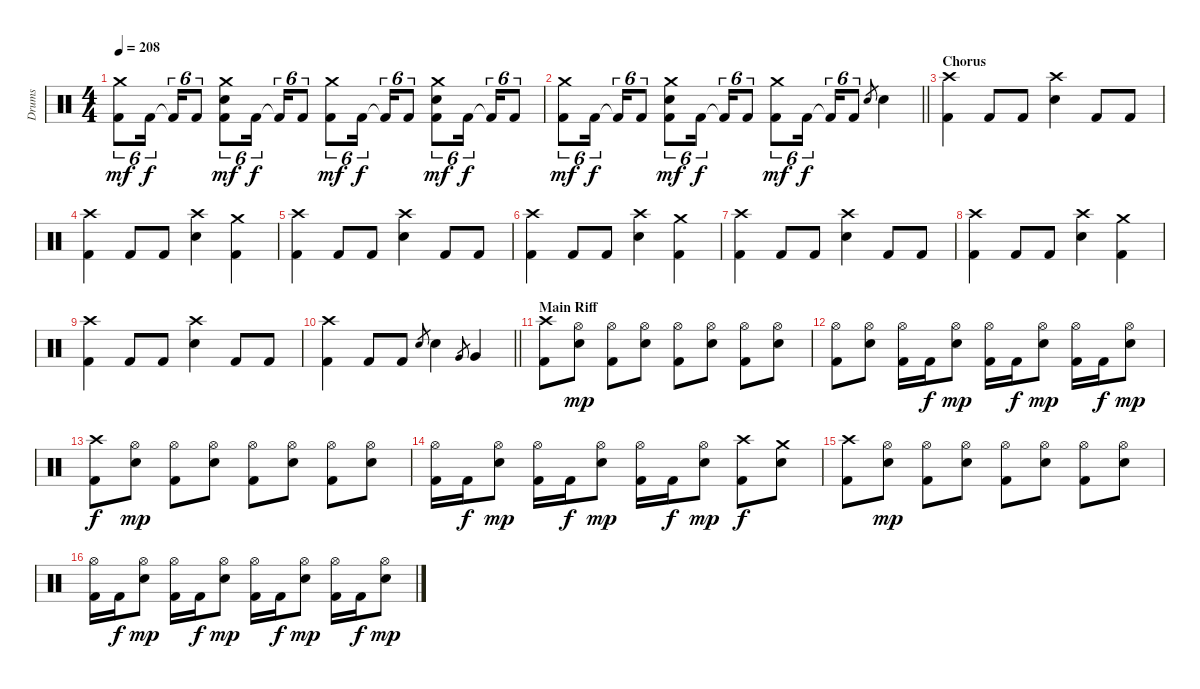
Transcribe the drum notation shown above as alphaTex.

\track ("Drums" "Drums") {instrument percussion}
\staff {score}
\articulation defaults
\ts (4 4)
\tempo 208
\clef neutral
\ks c
("Crash medium (hit)" "Kick (hit) 2").8{tu (6 4) dy mf} "Kick (hit) 2".16{tu (6 4) dy f} "Kick (hit) 2"{t}.16{tu (6 4)} "Kick (hit) 2".8{tu (6 4)} ("Crash medium (hit)" "Electric Snare (hit)" "Kick (hit) 2").8{tu (6 4) dy mf} "Kick (hit) 2".16{tu (6 4) dy f} "Kick (hit) 2"{t}.16{tu (6 4)} "Kick (hit) 2".8{tu (6 4)} ("Crash medium (hit)" "Kick (hit) 2").8{tu (6 4) dy mf} "Kick (hit) 2".16{tu (6 4) dy f} "Kick (hit) 2"{t}.16{tu (6 4)} "Kick (hit) 2".8{tu (6 4)} ("Crash medium (hit)" "Electric Snare (hit)" "Kick (hit) 2").8{tu (6 4) dy mf} "Kick (hit) 2".16{tu (6 4) dy f} "Kick (hit) 2"{t}.16{tu (6 4)} "Kick (hit) 2".8{tu (6 4)} |
\barLineRight lightlight
("Crash medium (hit)" "Kick (hit) 2").8{tu (6 4) dy mf} "Kick (hit) 2".16{tu (6 4) dy f} "Kick (hit) 2"{t}.16{tu (6 4)} "Kick (hit) 2".8{tu (6 4)} ("Crash medium (hit)" "Electric Snare (hit)" "Kick (hit) 2").8{tu (6 4) dy mf} "Kick (hit) 2".16{tu (6 4) dy f} "Kick (hit) 2"{t}.16{tu (6 4)} "Kick (hit) 2".8{tu (6 4)} ("Crash medium (hit)" "Kick (hit) 2").8{tu (6 4) dy mf} "Kick (hit) 2".16{tu (6 4) dy f} "Kick (hit) 2"{t}.16{tu (6 4)} "Kick (hit) 2".8{tu (6 4)} "Electric Snare (hit)".8{gr} "Electric Snare (hit)".4 |
\section ("" "Chorus")
("Crash high (hit)" "Kick (hit) 2").4 "Kick (hit) 2".8 "Kick (hit) 2".8 ("Crash high (hit)" "Electric Snare (hit)").4 "Kick (hit) 2".8 "Kick (hit) 2".8 |
("Crash high (hit)" "Kick (hit) 2").4 "Kick (hit) 2".8 "Kick (hit) 2".8 ("Crash high (hit)" "Electric Snare (hit)").4 ("Crash medium (hit)" "Kick (hit) 2").4 |
("Crash high (hit)" "Kick (hit) 2").4 "Kick (hit) 2".8 "Kick (hit) 2".8 ("Crash high (hit)" "Electric Snare (hit)").4 "Kick (hit) 2".8 "Kick (hit) 2".8 |
("Crash high (hit)" "Kick (hit) 2").4 "Kick (hit) 2".8 "Kick (hit) 2".8 ("Crash high (hit)" "Electric Snare (hit)").4 ("Crash medium (hit)" "Kick (hit) 2").4 |
("Crash high (hit)" "Kick (hit) 2").4 "Kick (hit) 2".8 "Kick (hit) 2".8 ("Crash high (hit)" "Electric Snare (hit)").4 "Kick (hit) 2".8 "Kick (hit) 2".8 |
("Crash high (hit)" "Kick (hit) 2").4 "Kick (hit) 2".8 "Kick (hit) 2".8 ("Crash high (hit)" "Electric Snare (hit)").4 ("Crash medium (hit)" "Kick (hit) 2").4 |
("Crash high (hit)" "Kick (hit) 2").4 "Kick (hit) 2".8 "Kick (hit) 2".8 ("Crash high (hit)" "Electric Snare (hit)").4 "Kick (hit) 2".8 "Kick (hit) 2".8 |
\barLineRight lightlight
("Crash high (hit)" "Kick (hit) 2").4 "Kick (hit) 2".8 "Kick (hit) 2".8 "Electric Snare (hit)".8{gr} "Electric Snare (hit)".4 "Very Low Tom (hit)".8{gr} "Very Low Tom (hit)".4 |
\section ("" "Main Riff")
("Crash high (hit)" "Kick (hit) 2").8 ("Hi-Hat (open)" "Electric Snare (hit)").8{dy mp} ("Hi-Hat (open)" "Kick (hit) 2").8 ("Hi-Hat (open)" "Electric Snare (hit)").8 ("Hi-Hat (open)" "Kick (hit) 2").8 ("Hi-Hat (open)" "Electric Snare (hit)").8 ("Hi-Hat (open)" "Kick (hit) 2").8 ("Hi-Hat (open)" "Electric Snare (hit)").8 |
("Hi-Hat (open)" "Kick (hit) 2").8 ("Hi-Hat (open)" "Electric Snare (hit)").8 ("Hi-Hat (open)" "Kick (hit) 2").16 "Kick (hit) 2".16{dy f} ("Hi-Hat (open)" "Electric Snare (hit)").8{dy mp} ("Hi-Hat (open)" "Kick (hit) 2").16 "Kick (hit) 2".16{dy f} ("Hi-Hat (open)" "Electric Snare (hit)").8{dy mp} ("Hi-Hat (open)" "Kick (hit) 2").16 "Kick (hit) 2".16{dy f} ("Hi-Hat (open)" "Electric Snare (hit)").8{dy mp} |
("Crash high (hit)" "Kick (hit) 2").8{dy f} ("Hi-Hat (open)" "Electric Snare (hit)").8{dy mp} ("Hi-Hat (open)" "Kick (hit) 2").8 ("Hi-Hat (open)" "Electric Snare (hit)").8 ("Hi-Hat (open)" "Kick (hit) 2").8 ("Hi-Hat (open)" "Electric Snare (hit)").8 ("Hi-Hat (open)" "Kick (hit) 2").8 ("Hi-Hat (open)" "Electric Snare (hit)").8 |
("Hi-Hat (open)" "Kick (hit) 2").16 "Kick (hit) 2".16{dy f} ("Hi-Hat (open)" "Electric Snare (hit)").8{dy mp} ("Hi-Hat (open)" "Kick (hit) 2").16 "Kick (hit) 2".16{dy f} ("Hi-Hat (open)" "Electric Snare (hit)").8{dy mp} ("Hi-Hat (open)" "Kick (hit) 2").16 "Kick (hit) 2".16{dy f} ("Hi-Hat (open)" "Electric Snare (hit)").8{dy mp} ("Crash high (hit)" "Kick (hit) 2").8{dy f} ("Crash medium (hit)" "Electric Snare (hit)").8 |
("Crash high (hit)" "Kick (hit) 2").8 ("Hi-Hat (open)" "Electric Snare (hit)").8{dy mp} ("Hi-Hat (open)" "Kick (hit) 2").8 ("Hi-Hat (open)" "Electric Snare (hit)").8 ("Hi-Hat (open)" "Kick (hit) 2").8 ("Hi-Hat (open)" "Electric Snare (hit)").8 ("Hi-Hat (open)" "Kick (hit) 2").8 ("Hi-Hat (open)" "Electric Snare (hit)").8 |
("Hi-Hat (open)" "Kick (hit) 2").16 "Kick (hit) 2".16{dy f} ("Hi-Hat (open)" "Electric Snare (hit)").8{dy mp} ("Hi-Hat (open)" "Kick (hit) 2").16 "Kick (hit) 2".16{dy f} ("Hi-Hat (open)" "Electric Snare (hit)").8{dy mp} ("Hi-Hat (open)" "Kick (hit) 2").16 "Kick (hit) 2".16{dy f} ("Hi-Hat (open)" "Electric Snare (hit)").8{dy mp} ("Hi-Hat (open)" "Kick (hit) 2").16 "Kick (hit) 2".16{dy f} ("Hi-Hat (open)" "Electric Snare (hit)").8{dy mp}
